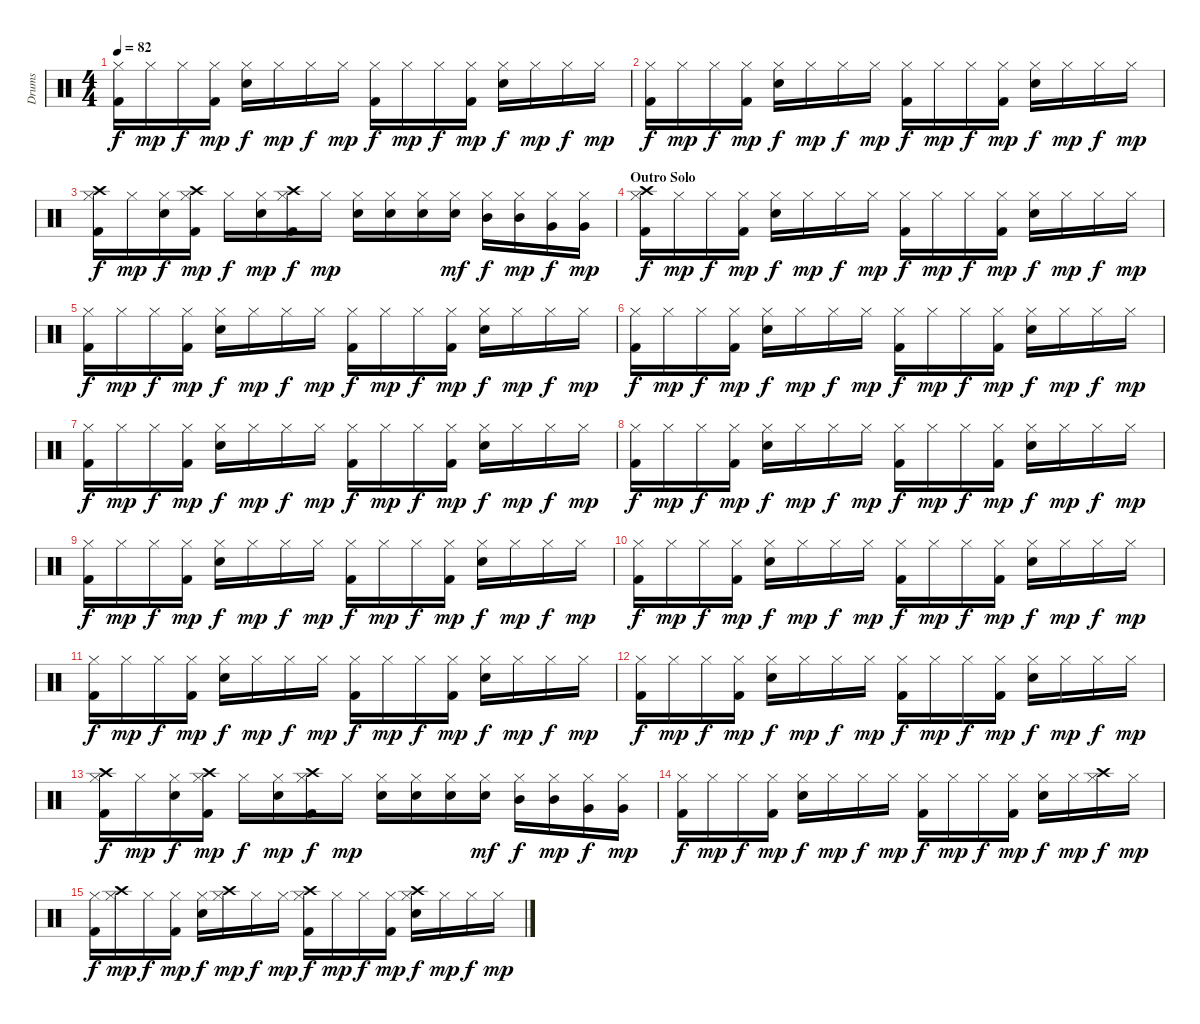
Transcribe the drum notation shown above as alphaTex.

\track ("Drums" "Drums") {instrument percussion}
\staff {score}
\articulation defaults
\ts (4 4)
\tempo 82
\clef neutral
\ks c
("Hi-Hat (closed)" "Kick (hit) 2").16{dy f} "Hi-Hat (closed)".16{dy mp} "Hi-Hat (closed)".16{dy f} ("Hi-Hat (closed)" "Kick (hit) 2").16{dy mp} ("Hi-Hat (closed)" "Snare (hit) 2").16{dy f} "Hi-Hat (closed)".16{dy mp} "Hi-Hat (closed)".16{dy f} "Hi-Hat (closed)".16{dy mp} ("Hi-Hat (closed)" "Kick (hit) 2").16{dy f} "Hi-Hat (closed)".16{dy mp} "Hi-Hat (closed)".16{dy f} ("Hi-Hat (closed)" "Kick (hit) 2").16{dy mp} ("Hi-Hat (closed)" "Snare (hit) 2").16{dy f} "Hi-Hat (closed)".16{dy mp} "Hi-Hat (closed)".16{dy f} "Hi-Hat (closed)".16{dy mp} |
("Hi-Hat (closed)" "Kick (hit) 2").16{dy f} "Hi-Hat (closed)".16{dy mp} "Hi-Hat (closed)".16{dy f} ("Hi-Hat (closed)" "Kick (hit) 2").16{dy mp} ("Hi-Hat (closed)" "Snare (hit) 2").16{dy f} "Hi-Hat (closed)".16{dy mp} "Hi-Hat (closed)".16{dy f} "Hi-Hat (closed)".16{dy mp} ("Hi-Hat (closed)" "Kick (hit) 2").16{dy f} "Hi-Hat (closed)".16{dy mp} "Hi-Hat (closed)".16{dy f} ("Hi-Hat (closed)" "Kick (hit) 2").16{dy mp} ("Hi-Hat (closed)" "Snare (hit) 2").16{dy f} "Hi-Hat (closed)".16{dy mp} "Hi-Hat (closed)".16{dy f} "Hi-Hat (closed)".16{dy mp} |
("Hi-Hat (closed)" "Crash high (hit)" "Kick (hit) 2").16{dy f} "Hi-Hat (closed)".16{dy mp} ("Hi-Hat (closed)" "Snare (hit) 2").16{dy f} ("Hi-Hat (closed)" "Crash high (hit)" "Kick (hit) 2").16{dy mp} "Hi-Hat (closed)".16{dy f} ("Hi-Hat (closed)" "Snare (hit) 2").16{dy mp} ("Hi-Hat (closed)" "Crash high (hit)" "Kick (hit) 2").16{dy f} "Hi-Hat (closed)".16{dy mp} ("Hi-Hat (closed)" "Snare (hit) 2").16 ("Hi-Hat (closed)" "Snare (hit) 2").16 ("Hi-Hat (closed)" "Snare (hit) 2").16 ("Hi-Hat (closed)" "Snare (hit) 2").16{dy mf} ("Hi-Hat (closed)" "Mid Tom (hit)").16{dy f} ("Hi-Hat (closed)" "Mid Tom (hit)").16{dy mp} ("Hi-Hat (closed)" "Very Low Tom (hit)").16{dy f} ("Hi-Hat (closed)" "Very Low Tom (hit)").16{dy mp} |
\section ("" "Outro Solo")
("Hi-Hat (closed)" "Crash high (hit)" "Kick (hit) 2").16{dy f} "Hi-Hat (closed)".16{dy mp} "Hi-Hat (closed)".16{dy f} ("Hi-Hat (closed)" "Kick (hit) 2").16{dy mp} ("Hi-Hat (closed)" "Snare (hit) 2").16{dy f} "Hi-Hat (closed)".16{dy mp} "Hi-Hat (closed)".16{dy f} "Hi-Hat (closed)".16{dy mp} ("Hi-Hat (closed)" "Kick (hit) 2").16{dy f} "Hi-Hat (closed)".16{dy mp} "Hi-Hat (closed)".16{dy f} ("Hi-Hat (closed)" "Kick (hit) 2").16{dy mp} ("Hi-Hat (closed)" "Snare (hit) 2").16{dy f} "Hi-Hat (closed)".16{dy mp} "Hi-Hat (closed)".16{dy f} "Hi-Hat (closed)".16{dy mp} |
("Hi-Hat (closed)" "Kick (hit) 2").16{dy f} "Hi-Hat (closed)".16{dy mp} "Hi-Hat (closed)".16{dy f} ("Hi-Hat (closed)" "Kick (hit) 2").16{dy mp} ("Hi-Hat (closed)" "Snare (hit) 2").16{dy f} "Hi-Hat (closed)".16{dy mp} "Hi-Hat (closed)".16{dy f} "Hi-Hat (closed)".16{dy mp} ("Hi-Hat (closed)" "Kick (hit) 2").16{dy f} "Hi-Hat (closed)".16{dy mp} "Hi-Hat (closed)".16{dy f} ("Hi-Hat (closed)" "Kick (hit) 2").16{dy mp} ("Hi-Hat (closed)" "Snare (hit) 2").16{dy f} "Hi-Hat (closed)".16{dy mp} "Hi-Hat (closed)".16{dy f} "Hi-Hat (closed)".16{dy mp} |
("Hi-Hat (closed)" "Kick (hit) 2").16{dy f} "Hi-Hat (closed)".16{dy mp} "Hi-Hat (closed)".16{dy f} ("Hi-Hat (closed)" "Kick (hit) 2").16{dy mp} ("Hi-Hat (closed)" "Snare (hit) 2").16{dy f} "Hi-Hat (closed)".16{dy mp} "Hi-Hat (closed)".16{dy f} "Hi-Hat (closed)".16{dy mp} ("Hi-Hat (closed)" "Kick (hit) 2").16{dy f} "Hi-Hat (closed)".16{dy mp} "Hi-Hat (closed)".16{dy f} ("Hi-Hat (closed)" "Kick (hit) 2").16{dy mp} ("Hi-Hat (closed)" "Snare (hit) 2").16{dy f} "Hi-Hat (closed)".16{dy mp} "Hi-Hat (closed)".16{dy f} "Hi-Hat (closed)".16{dy mp} |
("Hi-Hat (closed)" "Kick (hit) 2").16{dy f} "Hi-Hat (closed)".16{dy mp} "Hi-Hat (closed)".16{dy f} ("Hi-Hat (closed)" "Kick (hit) 2").16{dy mp} ("Hi-Hat (closed)" "Snare (hit) 2").16{dy f} "Hi-Hat (closed)".16{dy mp} "Hi-Hat (closed)".16{dy f} "Hi-Hat (closed)".16{dy mp} ("Hi-Hat (closed)" "Kick (hit) 2").16{dy f} "Hi-Hat (closed)".16{dy mp} "Hi-Hat (closed)".16{dy f} ("Hi-Hat (closed)" "Kick (hit) 2").16{dy mp} ("Hi-Hat (closed)" "Snare (hit) 2").16{dy f} "Hi-Hat (closed)".16{dy mp} "Hi-Hat (closed)".16{dy f} "Hi-Hat (closed)".16{dy mp} |
("Hi-Hat (closed)" "Kick (hit) 2").16{dy f} "Hi-Hat (closed)".16{dy mp} "Hi-Hat (closed)".16{dy f} ("Hi-Hat (closed)" "Kick (hit) 2").16{dy mp} ("Hi-Hat (closed)" "Snare (hit) 2").16{dy f} "Hi-Hat (closed)".16{dy mp} "Hi-Hat (closed)".16{dy f} "Hi-Hat (closed)".16{dy mp} ("Hi-Hat (closed)" "Kick (hit) 2").16{dy f} "Hi-Hat (closed)".16{dy mp} "Hi-Hat (closed)".16{dy f} ("Hi-Hat (closed)" "Kick (hit) 2").16{dy mp} ("Hi-Hat (closed)" "Snare (hit) 2").16{dy f} "Hi-Hat (closed)".16{dy mp} "Hi-Hat (closed)".16{dy f} "Hi-Hat (closed)".16{dy mp} |
("Hi-Hat (closed)" "Kick (hit) 2").16{dy f} "Hi-Hat (closed)".16{dy mp} "Hi-Hat (closed)".16{dy f} ("Hi-Hat (closed)" "Kick (hit) 2").16{dy mp} ("Hi-Hat (closed)" "Snare (hit) 2").16{dy f} "Hi-Hat (closed)".16{dy mp} "Hi-Hat (closed)".16{dy f} "Hi-Hat (closed)".16{dy mp} ("Hi-Hat (closed)" "Kick (hit) 2").16{dy f} "Hi-Hat (closed)".16{dy mp} "Hi-Hat (closed)".16{dy f} ("Hi-Hat (closed)" "Kick (hit) 2").16{dy mp} ("Hi-Hat (closed)" "Snare (hit) 2").16{dy f} "Hi-Hat (closed)".16{dy mp} "Hi-Hat (closed)".16{dy f} "Hi-Hat (closed)".16{dy mp} |
("Hi-Hat (closed)" "Kick (hit) 2").16{dy f} "Hi-Hat (closed)".16{dy mp} "Hi-Hat (closed)".16{dy f} ("Hi-Hat (closed)" "Kick (hit) 2").16{dy mp} ("Hi-Hat (closed)" "Snare (hit) 2").16{dy f} "Hi-Hat (closed)".16{dy mp} "Hi-Hat (closed)".16{dy f} "Hi-Hat (closed)".16{dy mp} ("Hi-Hat (closed)" "Kick (hit) 2").16{dy f} "Hi-Hat (closed)".16{dy mp} "Hi-Hat (closed)".16{dy f} ("Hi-Hat (closed)" "Kick (hit) 2").16{dy mp} ("Hi-Hat (closed)" "Snare (hit) 2").16{dy f} "Hi-Hat (closed)".16{dy mp} "Hi-Hat (closed)".16{dy f} "Hi-Hat (closed)".16{dy mp} |
("Hi-Hat (closed)" "Kick (hit) 2").16{dy f} "Hi-Hat (closed)".16{dy mp} "Hi-Hat (closed)".16{dy f} ("Hi-Hat (closed)" "Kick (hit) 2").16{dy mp} ("Hi-Hat (closed)" "Snare (hit) 2").16{dy f} "Hi-Hat (closed)".16{dy mp} "Hi-Hat (closed)".16{dy f} "Hi-Hat (closed)".16{dy mp} ("Hi-Hat (closed)" "Kick (hit) 2").16{dy f} "Hi-Hat (closed)".16{dy mp} "Hi-Hat (closed)".16{dy f} ("Hi-Hat (closed)" "Kick (hit) 2").16{dy mp} ("Hi-Hat (closed)" "Snare (hit) 2").16{dy f} "Hi-Hat (closed)".16{dy mp} "Hi-Hat (closed)".16{dy f} "Hi-Hat (closed)".16{dy mp} |
("Hi-Hat (closed)" "Kick (hit) 2").16{dy f} "Hi-Hat (closed)".16{dy mp} "Hi-Hat (closed)".16{dy f} ("Hi-Hat (closed)" "Kick (hit) 2").16{dy mp} ("Hi-Hat (closed)" "Snare (hit) 2").16{dy f} "Hi-Hat (closed)".16{dy mp} "Hi-Hat (closed)".16{dy f} "Hi-Hat (closed)".16{dy mp} ("Hi-Hat (closed)" "Kick (hit) 2").16{dy f} "Hi-Hat (closed)".16{dy mp} "Hi-Hat (closed)".16{dy f} ("Hi-Hat (closed)" "Kick (hit) 2").16{dy mp} ("Hi-Hat (closed)" "Snare (hit) 2").16{dy f} "Hi-Hat (closed)".16{dy mp} "Hi-Hat (closed)".16{dy f} "Hi-Hat (closed)".16{dy mp} |
("Hi-Hat (closed)" "Crash high (hit)" "Kick (hit) 2").16{dy f} "Hi-Hat (closed)".16{dy mp} ("Hi-Hat (closed)" "Snare (hit) 2").16{dy f} ("Hi-Hat (closed)" "Crash high (hit)" "Kick (hit) 2").16{dy mp} "Hi-Hat (closed)".16{dy f} ("Hi-Hat (closed)" "Snare (hit) 2").16{dy mp} ("Hi-Hat (closed)" "Crash high (hit)" "Kick (hit) 2").16{dy f} "Hi-Hat (closed)".16{dy mp} ("Hi-Hat (closed)" "Snare (hit) 2").16 ("Hi-Hat (closed)" "Snare (hit) 2").16 ("Hi-Hat (closed)" "Snare (hit) 2").16 ("Hi-Hat (closed)" "Snare (hit) 2").16{dy mf} ("Hi-Hat (closed)" "Mid Tom (hit)").16{dy f} ("Hi-Hat (closed)" "Mid Tom (hit)").16{dy mp} ("Hi-Hat (closed)" "Very Low Tom (hit)").16{dy f} ("Hi-Hat (closed)" "Very Low Tom (hit)").16{dy mp} |
("Hi-Hat (closed)" "Kick (hit) 2").16{dy f} "Hi-Hat (closed)".16{dy mp} "Hi-Hat (closed)".16{dy f} ("Hi-Hat (closed)" "Kick (hit) 2").16{dy mp} ("Hi-Hat (closed)" "Snare (hit) 2").16{dy f} "Hi-Hat (closed)".16{dy mp} "Hi-Hat (closed)".16{dy f} "Hi-Hat (closed)".16{dy mp} ("Hi-Hat (closed)" "Kick (hit) 2").16{dy f} "Hi-Hat (closed)".16{dy mp} "Hi-Hat (closed)".16{dy f} ("Hi-Hat (closed)" "Kick (hit) 2").16{dy mp} ("Hi-Hat (closed)" "Snare (hit) 2").16{dy f} "Hi-Hat (closed)".16{dy mp} ("Hi-Hat (closed)" "Crash high (hit)").16{dy f} "Hi-Hat (closed)".16{dy mp} |
("Hi-Hat (closed)" "Kick (hit) 2").16{dy f} ("Hi-Hat (closed)" "Crash high (hit)").16{dy mp} "Hi-Hat (closed)".16{dy f} ("Hi-Hat (closed)" "Kick (hit) 2").16{dy mp} ("Hi-Hat (closed)" "Snare (hit) 2").16{dy f} ("Hi-Hat (closed)" "Crash high (hit)").16{dy mp} "Hi-Hat (closed)".16{dy f} "Hi-Hat (closed)".16{dy mp} ("Hi-Hat (closed)" "Crash high (hit)" "Kick (hit) 2").16{dy f} "Hi-Hat (closed)".16{dy mp} "Hi-Hat (closed)".16{dy f} ("Hi-Hat (closed)" "Kick (hit) 2").16{dy mp} ("Hi-Hat (closed)" "Snare (hit) 2" "Crash high (hit)").16{dy f} "Hi-Hat (closed)".16{dy mp} "Hi-Hat (closed)".16{dy f} "Hi-Hat (closed)".16{dy mp}
